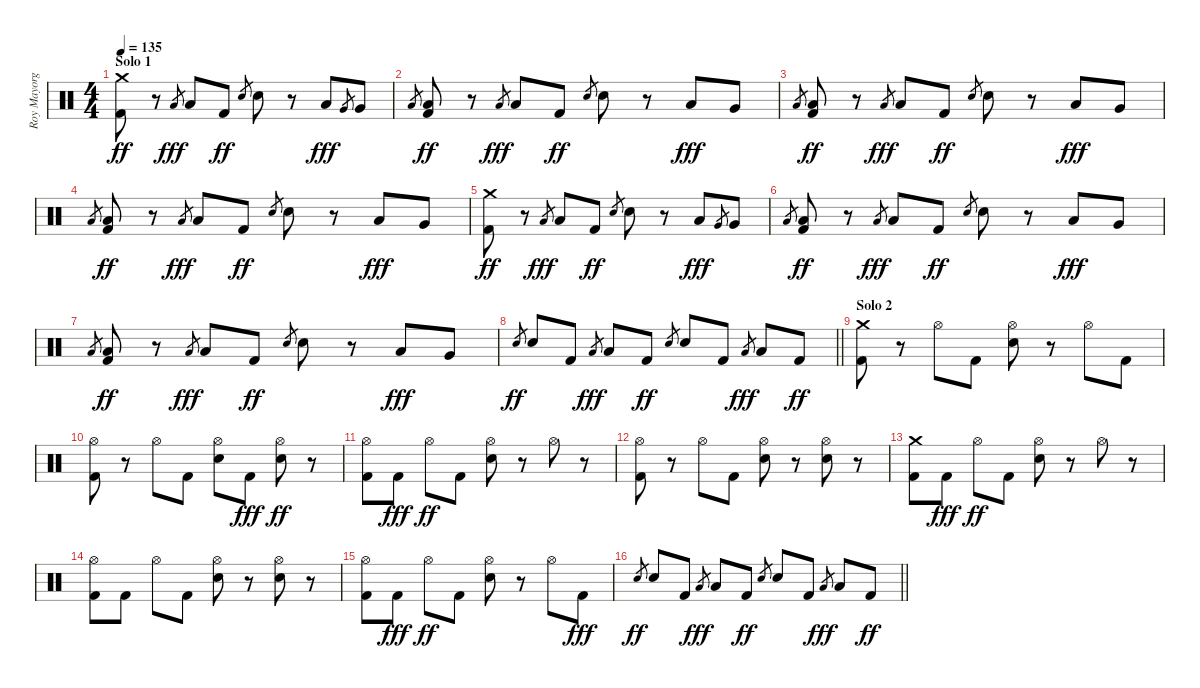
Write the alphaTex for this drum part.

\track ("Roy Mayorga" "Roy Mayorg") {instrument percussion}
\staff {score}
\articulation defaults
\ts (4 4)
\section ("" "Solo 1")
\tempo 135
\clef neutral
\ks c
("Crash medium (hit)" "Kick (hit) 2").8{dy ff} r.8 "Low Tom (hit)".8{gr dy fff} "Low Tom (hit)".8 "Kick (hit) 2".8{dy ff} "Electric Snare (hit)".8{gr} "Electric Snare (hit)".8 r.8 "Low Tom (hit)".8{dy fff} "Very Low Tom (hit)".8{gr} "Very Low Tom (hit)".8 |
"Low Floor Tom (hit)".8{gr} ("Low Floor Tom (hit)" "Kick (hit) 2").8{dy ff} r.8 "Low Tom (hit)".8{gr dy fff} "Low Tom (hit)".8 "Kick (hit) 2".8{dy ff} "Electric Snare (hit)".8{gr} "Electric Snare (hit)".8 r.8 "Low Tom (hit)".8{dy fff} "Very Low Tom (hit)".8 |
"Low Floor Tom (hit)".8{gr} ("Low Floor Tom (hit)" "Kick (hit) 2").8{dy ff} r.8 "Low Tom (hit)".8{gr dy fff} "Low Tom (hit)".8 "Kick (hit) 2".8{dy ff} "Electric Snare (hit)".8{gr} "Electric Snare (hit)".8 r.8 "Low Tom (hit)".8{dy fff} "Very Low Tom (hit)".8 |
"Low Floor Tom (hit)".8{gr} ("Low Floor Tom (hit)" "Kick (hit) 2").8{dy ff} r.8 "Low Tom (hit)".8{gr dy fff} "Low Tom (hit)".8 "Kick (hit) 2".8{dy ff} "Electric Snare (hit)".8{gr} "Electric Snare (hit)".8 r.8 "Low Tom (hit)".8{dy fff} "Very Low Tom (hit)".8 |
("Crash medium (hit)" "Kick (hit) 2").8{dy ff} r.8 "Low Tom (hit)".8{gr dy fff} "Low Tom (hit)".8 "Kick (hit) 2".8{dy ff} "Electric Snare (hit)".8{gr} "Electric Snare (hit)".8 r.8 "Low Tom (hit)".8{dy fff} "Very Low Tom (hit)".8{gr} "Very Low Tom (hit)".8 |
"Low Floor Tom (hit)".8{gr} ("Low Floor Tom (hit)" "Kick (hit) 2").8{dy ff} r.8 "Low Tom (hit)".8{gr dy fff} "Low Tom (hit)".8 "Kick (hit) 2".8{dy ff} "Electric Snare (hit)".8{gr} "Electric Snare (hit)".8 r.8 "Low Tom (hit)".8{dy fff} "Very Low Tom (hit)".8 |
"Low Floor Tom (hit)".8{gr} ("Low Floor Tom (hit)" "Kick (hit) 2").8{dy ff} r.8 "Low Tom (hit)".8{gr dy fff} "Low Tom (hit)".8 "Kick (hit) 2".8{dy ff} "Electric Snare (hit)".8{gr} "Electric Snare (hit)".8 r.8 "Low Tom (hit)".8{dy fff} "Very Low Tom (hit)".8 |
\barLineRight lightlight "Electric Snare (hit)".8{gr dy ff} "Electric Snare (hit)".8 "Kick (hit) 2".8 "Low Tom (hit)".8{gr dy fff} "Low Tom (hit)".8 "Kick (hit) 2".8{dy ff} "Electric Snare (hit)".8{gr} "Electric Snare (hit)".8 "Kick (hit) 2".8 "Low Tom (hit)".8{gr dy fff} "Low Tom (hit)".8 "Kick (hit) 2".8{dy ff}
|
\section ("" "Solo 2")
("Crash medium (hit)" "Kick (hit) 2").8 r.8 "Hi-Hat (open)".8 "Kick (hit) 2".8 ("Hi-Hat (open)" "Electric Snare (hit)").8 r.8 "Hi-Hat (open)".8 "Kick (hit) 2".8 |
("Hi-Hat (open)" "Kick (hit) 2").8 r.8 "Hi-Hat (open)".8 "Kick (hit) 2".8 ("Hi-Hat (open)" "Electric Snare (hit)").8 "Kick (hit) 2".8{dy fff} ("Hi-Hat (open)" "Electric Snare (hit)").8{dy ff} r.8 |
("Hi-Hat (open)" "Kick (hit) 2").8 "Kick (hit) 2".8{dy fff} "Hi-Hat (open)".8{dy ff} "Kick (hit) 2".8 ("Hi-Hat (open)" "Electric Snare (hit)").8 r.8 "Hi-Hat (open)".8 r.8 |
("Hi-Hat (open)" "Kick (hit) 2").8 r.8 "Hi-Hat (open)".8 "Kick (hit) 2".8 ("Hi-Hat (open)" "Electric Snare (hit)").8 r.8 ("Hi-Hat (open)" "Electric Snare (hit)").8 r.8 |
("Crash medium (hit)" "Kick (hit) 2").8 "Kick (hit) 2".8{dy fff} "Hi-Hat (open)".8{dy ff} "Kick (hit) 2".8 ("Hi-Hat (open)" "Electric Snare (hit)").8 r.8 "Hi-Hat (open)".8 r.8 |
("Hi-Hat (open)" "Kick (hit) 2").8 "Kick (hit) 2".8 "Hi-Hat (open)".8 "Kick (hit) 2".8 ("Hi-Hat (open)" "Electric Snare (hit)").8 r.8 ("Hi-Hat (open)" "Electric Snare (hit)").8 r.8 |
("Hi-Hat (open)" "Kick (hit) 2").8 "Kick (hit) 2".8{dy fff} "Hi-Hat (open)".8{dy ff} "Kick (hit) 2".8 ("Hi-Hat (open)" "Electric Snare (hit)").8 r.8 "Hi-Hat (open)".8 "Kick (hit) 2".8{dy fff} |
\barLineRight lightlight "Electric Snare (hit)".8{gr dy ff} "Electric Snare (hit)".8 "Kick (hit) 2".8 "Low Tom (hit)".8{gr dy fff} "Low Tom (hit)".8 "Kick (hit) 2".8{dy ff} "Electric Snare (hit)".8{gr} "Electric Snare (hit)".8 "Kick (hit) 2".8 "Low Tom (hit)".8{gr dy fff} "Low Tom (hit)".8 "Kick (hit) 2".8{dy ff}
